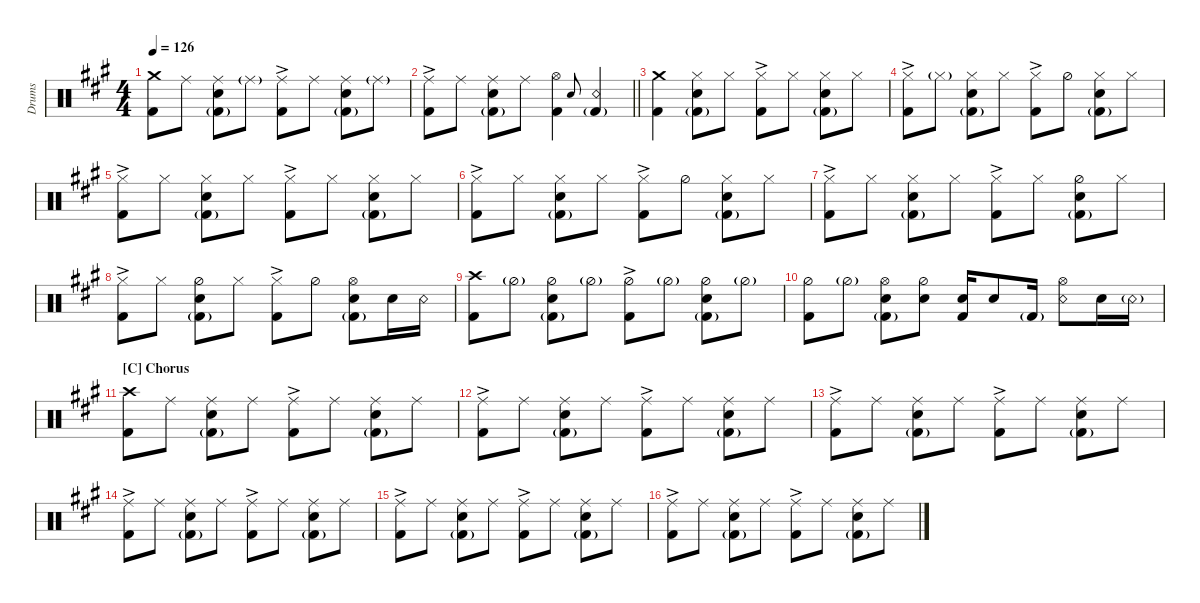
\hideDynamics
\bracketExtendMode groupsimilarinstruments
\otherSystemsTrackNameOrientation horizontal
\track ("Drumkit" "Drums") {defaultSystemsLayout 4 instrument percussion}
\staff {score}
\articulation defaults
\ts (4 4)
\tempo 126
\clef neutral
\ks a
("Kick (hit) 2"{acc forcenatural} "Crash medium (hit)"{acc forcenatural}).8{dy f beam Down} "Ride (middle)"{acc forcenatural}.8{beam Down} ("Ride (middle)"{acc forcenatural} "Snare (hit) 2"{acc forcenatural} "Kick (hit) 2"{g acc forcenatural}).8{beam Down} "Ride (middle)"{g acc forcenatural}.8{beam Down} ("Ride (middle)"{ac acc forcenatural} "Kick (hit) 2"{acc forcenatural}).8{beam Down} "Ride (middle)"{acc forcenatural}.8{beam Down} ("Ride (middle)"{acc forcenatural} "Snare (hit) 2"{acc forcenatural} "Kick (hit) 2"{g acc forcenatural}).8{beam Down} "Ride (middle)"{g acc forcenatural}.8{beam Down} |
\barLineRight lightlight
("Ride (middle)"{ac acc forcenatural} "Kick (hit) 2"{acc forcenatural}).8{beam Down} "Ride (middle)"{acc forcenatural}.8{beam Down} ("Ride (middle)"{acc forcenatural} "Snare (hit) 2"{acc forcenatural} "Kick (hit) 2"{g acc forcenatural}).8{beam Down} "Ride (middle)"{acc forcenatural}.8{beam Down} ("Kick (hit) 2"{acc forcenatural} "Hi-Hat (open)"{acc forcenatural}).4{beam Down} "Snare (hit) 2"{acc forcenatural}.8{gr onbeat beam Up} ("Snare (rim shot)"{acc forcenatural} "Kick (hit) 2"{g acc forcenatural}).4{beam Up} |
("Kick (hit) 2"{acc forcenatural} "Crash medium (hit)"{acc forcenatural}).4{beam Down} ("Snare (hit) 2"{acc forcenatural} "Kick (hit) 2"{g acc forcenatural} "Hi-Hat (closed)"{acc forcenatural}).8{beam Down} "Hi-Hat (closed)"{acc forcenatural}.8{beam Down} ("Kick (hit) 2"{acc forcenatural} "Hi-Hat (closed)"{ac acc forcenatural}).8{beam Down} "Hi-Hat (closed)"{acc forcenatural}.8{beam Down} ("Snare (hit) 2"{acc forcenatural} "Kick (hit) 2"{g acc forcenatural} "Hi-Hat (closed)"{acc forcenatural}).8{beam Down} "Hi-Hat (closed)"{acc forcenatural}.8{beam Down} |
("Kick (hit) 2"{acc forcenatural} "Hi-Hat (closed)"{ac acc forcenatural}).8{beam Down} "Hi-Hat (closed)"{g acc forcenatural}.8{beam Down} ("Snare (hit) 2"{acc forcenatural} "Kick (hit) 2"{g acc forcenatural} "Hi-Hat (closed)"{acc forcenatural}).8{beam Down} "Hi-Hat (closed)"{acc forcenatural}.8{beam Down} ("Kick (hit) 2"{acc forcenatural} "Hi-Hat (closed)"{ac acc forcenatural}).8{beam Down} "Hi-Hat (half)"{acc forcenatural}.8{beam Down} ("Snare (hit) 2"{acc forcenatural} "Kick (hit) 2"{g acc forcenatural} "Hi-Hat (closed)"{acc forcenatural}).8{beam Down} "Hi-Hat (closed)"{acc forcenatural}.8{beam Down} |
("Kick (hit) 2"{acc forcenatural} "Hi-Hat (closed)"{ac acc forcenatural}).8{beam Down} "Hi-Hat (closed)"{acc forcenatural}.8{beam Down} ("Snare (hit) 2"{acc forcenatural} "Kick (hit) 2"{g acc forcenatural} "Hi-Hat (closed)"{acc forcenatural}).8{beam Down} "Hi-Hat (closed)"{acc forcenatural}.8{beam Down} ("Kick (hit) 2"{acc forcenatural} "Hi-Hat (closed)"{ac acc forcenatural}).8{beam Down} "Hi-Hat (closed)"{acc forcenatural}.8{beam Down} ("Snare (hit) 2"{acc forcenatural} "Kick (hit) 2"{g acc forcenatural} "Hi-Hat (closed)"{acc forcenatural}).8{beam Down} "Hi-Hat (closed)"{acc forcenatural}.8{beam Down} |
("Kick (hit) 2"{acc forcenatural} "Hi-Hat (closed)"{ac acc forcenatural}).8{beam Down} "Hi-Hat (closed)"{acc forcenatural}.8{beam Down} ("Snare (hit) 2"{acc forcenatural} "Kick (hit) 2"{g acc forcenatural} "Hi-Hat (closed)"{acc forcenatural}).8{beam Down} "Hi-Hat (closed)"{acc forcenatural}.8{beam Down} ("Kick (hit) 2"{acc forcenatural} "Hi-Hat (closed)"{ac acc forcenatural}).8{beam Down} "Hi-Hat (half)"{acc forcenatural}.8{beam Down} ("Snare (hit) 2"{acc forcenatural} "Kick (hit) 2"{g acc forcenatural} "Hi-Hat (closed)"{acc forcenatural}).8{beam Down} "Hi-Hat (closed)"{acc forcenatural}.8{beam Down} |
("Kick (hit) 2"{acc forcenatural} "Hi-Hat (closed)"{ac acc forcenatural}).8{beam Down} "Hi-Hat (closed)"{acc forcenatural}.8{beam Down} ("Snare (hit) 2"{acc forcenatural} "Kick (hit) 2"{g acc forcenatural} "Hi-Hat (closed)"{acc forcenatural}).8{beam Down} "Hi-Hat (closed)"{acc forcenatural}.8{beam Down} ("Kick (hit) 2"{acc forcenatural} "Hi-Hat (closed)"{ac acc forcenatural}).8{beam Down} "Hi-Hat (closed)"{acc forcenatural}.8{beam Down} ("Snare (hit) 2"{acc forcenatural} "Kick (hit) 2"{g acc forcenatural} "Hi-Hat (half)"{acc forcenatural}).8{beam Down} "Hi-Hat (closed)"{acc forcenatural}.8{beam Down} |
("Kick (hit) 2"{acc forcenatural} "Hi-Hat (closed)"{ac acc forcenatural}).8{beam Down} "Hi-Hat (closed)"{acc forcenatural}.8{beam Down} ("Snare (hit) 2"{acc forcenatural} "Kick (hit) 2"{g acc forcenatural} "Hi-Hat (half)"{acc forcenatural}).8{beam Down} "Hi-Hat (closed)"{acc forcenatural}.8{beam Down} ("Kick (hit) 2"{acc forcenatural} "Hi-Hat (closed)"{ac acc forcenatural}).8{beam Down} "Hi-Hat (half)"{acc forcenatural}.8{beam Down} ("Snare (hit) 2"{acc forcenatural} "Kick (hit) 2"{g acc forcenatural} "Hi-Hat (open)"{acc forcenatural}).8{beam Down} "Snare (hit) 2"{acc forcenatural}.16{beam Down} "Snare (rim shot)"{acc forcenatural}.16{beam Down} |
("Kick (hit) 2"{acc forcenatural} "Crash high (hit)"{acc forcenatural}).8{beam Down} "Hi-Hat (half)"{g acc forcenatural}.8{beam Down} ("Snare (hit) 2"{acc forcenatural} "Kick (hit) 2"{g acc forcenatural} "Hi-Hat (half)"{acc forcenatural}).8{beam Down} "Hi-Hat (half)"{g acc forcenatural}.8{beam Down} ("Kick (hit) 2"{acc forcenatural} "Hi-Hat (half)"{ac acc forcenatural}).8{beam Down} "Hi-Hat (half)"{g acc forcenatural}.8{beam Down} ("Snare (hit) 2"{acc forcenatural} "Kick (hit) 2"{g acc forcenatural} "Hi-Hat (half)"{acc forcenatural}).8{beam Down} "Hi-Hat (half)"{g acc forcenatural}.8{beam Down} |
("Kick (hit) 2"{acc forcenatural} "Hi-Hat (half)"{acc forcenatural}).8{beam Down} "Hi-Hat (half)"{g acc forcenatural}.8{beam Down} ("Snare (hit) 2"{acc forcenatural} "Kick (hit) 2"{g acc forcenatural} "Hi-Hat (open)"{acc forcenatural}).8{beam Down} ("Hi-Hat (half)"{acc forcenatural} "Snare (hit) 2"{acc forcenatural}).8{beam Down} ("Snare (hit) 2"{acc forcenatural} "Kick (hit) 2"{acc forcenatural}).16{beam Up} "Snare (hit) 2"{acc forcenatural}.8{beam Up} "Kick (hit) 2"{g acc forcenatural}.16{beam Up} ("Snare (rim shot)"{acc forcenatural} "Hi-Hat (open)"{acc forcenatural}).8{beam Down} "Snare (hit) 2"{acc forcenatural}.16{beam Down} "Snare (rim shot)"{g acc forcenatural}.16{beam Down} |
\section ("C" "Chorus")
("Crash high (hit)"{acc forcenatural} "Kick (hit) 2"{acc forcenatural}).8{beam Down} "Ride (middle)"{acc forcenatural}.8{beam Down} ("Ride (middle)"{acc forcenatural} "Snare (hit) 2"{acc forcenatural} "Kick (hit) 2"{g acc forcenatural}).8{beam Down} "Ride (middle)"{acc forcenatural}.8{beam Down} ("Ride (middle)"{ac acc forcenatural} "Kick (hit) 2"{acc forcenatural}).8{beam Down} "Ride (middle)"{acc forcenatural}.8{beam Down} ("Ride (middle)"{acc forcenatural} "Snare (hit) 2"{acc forcenatural} "Kick (hit) 2"{g acc forcenatural}).8{beam Down} "Ride (middle)"{acc forcenatural}.8{beam Down} |
("Ride (middle)"{ac acc forcenatural} "Kick (hit) 2"{acc forcenatural}).8{beam Down} "Ride (middle)"{acc forcenatural}.8{beam Down} ("Ride (middle)"{acc forcenatural} "Snare (hit) 2"{acc forcenatural} "Kick (hit) 2"{g acc forcenatural}).8{beam Down} "Ride (middle)"{acc forcenatural}.8{beam Down} ("Ride (middle)"{ac acc forcenatural} "Kick (hit) 2"{acc forcenatural}).8{beam Down} "Ride (middle)"{acc forcenatural}.8{beam Down} ("Ride (middle)"{acc forcenatural} "Snare (hit) 2"{acc forcenatural} "Kick (hit) 2"{g acc forcenatural}).8{beam Down} "Ride (middle)"{acc forcenatural}.8{beam Down} |
("Ride (middle)"{ac acc forcenatural} "Kick (hit) 2"{acc forcenatural}).8{beam Down} "Ride (middle)"{acc forcenatural}.8{beam Down} ("Ride (middle)"{acc forcenatural} "Snare (hit) 2"{acc forcenatural} "Kick (hit) 2"{g acc forcenatural}).8{beam Down} "Ride (middle)"{acc forcenatural}.8{beam Down} ("Ride (middle)"{ac acc forcenatural} "Kick (hit) 2"{acc forcenatural}).8{beam Down} "Ride (middle)"{acc forcenatural}.8{beam Down} ("Ride (middle)"{acc forcenatural} "Snare (hit) 2"{acc forcenatural} "Kick (hit) 2"{g acc forcenatural}).8{beam Down} "Ride (middle)"{acc forcenatural}.8{beam Down} |
("Ride (middle)"{ac acc forcenatural} "Kick (hit) 2"{acc forcenatural}).8{beam Down} "Ride (middle)"{acc forcenatural}.8{beam Down} ("Ride (middle)"{acc forcenatural} "Snare (hit) 2"{acc forcenatural} "Kick (hit) 2"{g acc forcenatural}).8{beam Down} "Ride (middle)"{acc forcenatural}.8{beam Down} ("Ride (middle)"{ac acc forcenatural} "Kick (hit) 2"{acc forcenatural}).8{beam Down} "Ride (middle)"{acc forcenatural}.8{beam Down} ("Ride (middle)"{acc forcenatural} "Snare (hit) 2"{acc forcenatural} "Kick (hit) 2"{g acc forcenatural}).8{beam Down} "Ride (middle)"{acc forcenatural}.8{beam Down} |
("Ride (middle)"{ac acc forcenatural} "Kick (hit) 2"{acc forcenatural}).8{beam Down} "Ride (middle)"{acc forcenatural}.8{beam Down} ("Ride (middle)"{acc forcenatural} "Snare (hit) 2"{acc forcenatural} "Kick (hit) 2"{g acc forcenatural}).8{beam Down} "Ride (middle)"{acc forcenatural}.8{beam Down} ("Ride (middle)"{ac acc forcenatural} "Kick (hit) 2"{acc forcenatural}).8{beam Down} "Ride (middle)"{acc forcenatural}.8{beam Down} ("Ride (middle)"{acc forcenatural} "Snare (hit) 2"{acc forcenatural} "Kick (hit) 2"{g acc forcenatural}).8{beam Down} "Ride (middle)"{acc forcenatural}.8{beam Down} |
("Ride (middle)"{ac acc forcenatural} "Kick (hit) 2"{acc forcenatural}).8{beam Down} "Ride (middle)"{acc forcenatural}.8{beam Down} ("Ride (middle)"{acc forcenatural} "Snare (hit) 2"{acc forcenatural} "Kick (hit) 2"{g acc forcenatural}).8{beam Down} "Ride (middle)"{acc forcenatural}.8{beam Down} ("Ride (middle)"{ac acc forcenatural} "Kick (hit) 2"{acc forcenatural}).8{beam Down} "Ride (middle)"{acc forcenatural}.8{beam Down} ("Ride (middle)"{acc forcenatural} "Snare (hit) 2"{acc forcenatural} "Kick (hit) 2"{g acc forcenatural}).8{beam Down} "Ride (middle)"{acc forcenatural}.8{beam Down}
